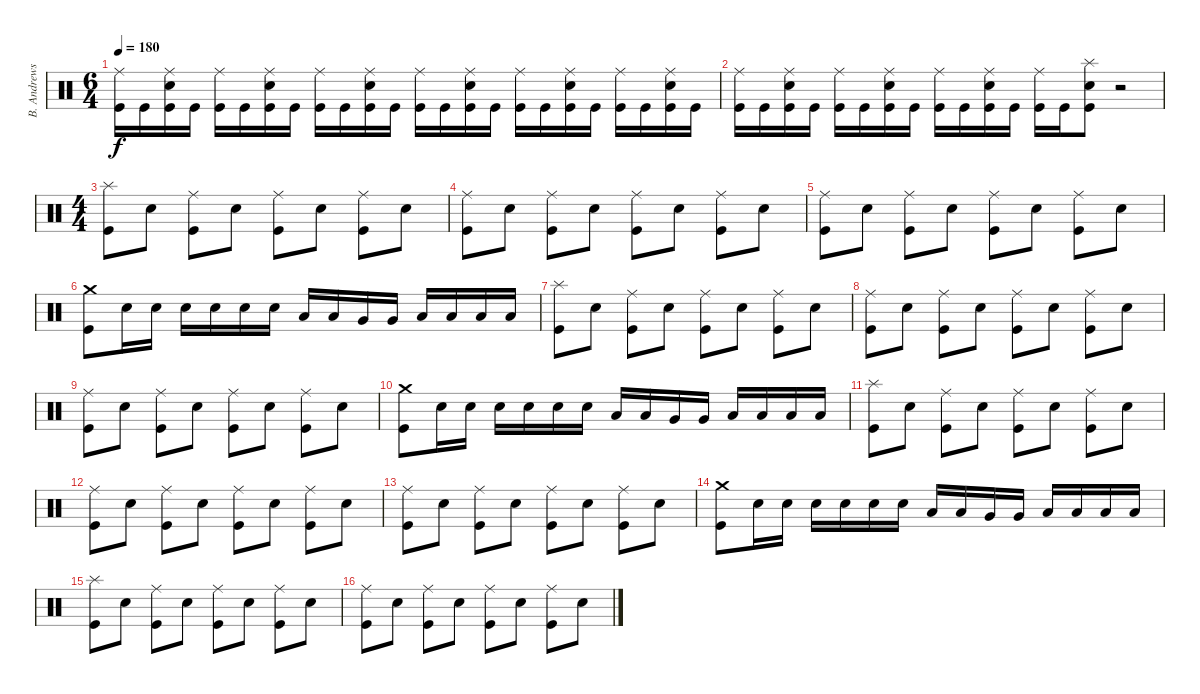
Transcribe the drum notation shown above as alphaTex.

\track ("B. Andrews" "B. Andrews") {instrument percussion}
\staff {score}
\articulation defaults
\ts (6 4)
\tempo 180
\clef neutral
\ks c
("Ride (middle)" "Kick (hit)").16{dy f} "Kick (hit)".16 ("Ride (middle)" "Electric Snare (hit)" "Kick (hit)").16 "Kick (hit)".16 ("Ride (middle)" "Kick (hit)").16 "Kick (hit)".16 ("Ride (middle)" "Electric Snare (hit)" "Kick (hit)").16 "Kick (hit)".16 ("Ride (middle)" "Kick (hit)").16 "Kick (hit)".16 ("Ride (middle)" "Electric Snare (hit)" "Kick (hit)").16 "Kick (hit)".16 ("Ride (middle)" "Kick (hit)").16 "Kick (hit)".16 ("Ride (middle)" "Electric Snare (hit)" "Kick (hit)").16 "Kick (hit)".16 ("Ride (middle)" "Kick (hit)").16 "Kick (hit)".16 ("Ride (middle)" "Electric Snare (hit)" "Kick (hit)").16 "Kick (hit)".16 ("Ride (middle)" "Kick (hit)").16 "Kick (hit)".16 ("Ride (middle)" "Electric Snare (hit)" "Kick (hit)").16 "Kick (hit)".16 |
("Ride (middle)" "Kick (hit)").16 "Kick (hit)".16 ("Ride (middle)" "Electric Snare (hit)" "Kick (hit)").16 "Kick (hit)".16 ("Ride (middle)" "Kick (hit)").16 "Kick (hit)".16 ("Ride (middle)" "Electric Snare (hit)" "Kick (hit)").16 "Kick (hit)".16 ("Ride (middle)" "Kick (hit)").16 "Kick (hit)".16 ("Ride (middle)" "Electric Snare (hit)" "Kick (hit)").16 "Kick (hit)".16 ("Ride (middle)" "Kick (hit)").16 "Kick (hit)".16 ("Splash (hit)" "Electric Snare (hit)" "Kick (hit)").8 r.2 |
\ts (4 4)
("Splash (hit)" "Kick (hit)").8 "Electric Snare (hit)".8 ("Ride (middle)" "Kick (hit)").8 "Electric Snare (hit)".8 ("Ride (middle)" "Kick (hit)").8 "Electric Snare (hit)".8 ("Ride (middle)" "Kick (hit)").8 "Electric Snare (hit)".8 |
("Ride (middle)" "Kick (hit)").8 "Electric Snare (hit)".8 ("Ride (middle)" "Kick (hit)").8 "Electric Snare (hit)".8 ("Ride (middle)" "Kick (hit)").8 "Electric Snare (hit)".8 ("Ride (middle)" "Kick (hit)").8 "Electric Snare (hit)".8 |
("Ride (middle)" "Kick (hit)").8 "Electric Snare (hit)".8 ("Ride (middle)" "Kick (hit)").8 "Electric Snare (hit)".8 ("Ride (middle)" "Kick (hit)").8 "Electric Snare (hit)".8 ("Ride (middle)" "Kick (hit)").8 "Electric Snare (hit)".8 |
("Crash medium (hit)" "Kick (hit)").8 "Electric Snare (hit)".16 "Electric Snare (hit)".16 "Electric Snare (hit)".16 "Electric Snare (hit)".16 "Electric Snare (hit)".16 "Electric Snare (hit)".16 "Low Tom (hit)".16 "Low Tom (hit)".16 "Very Low Tom (hit)".16 "Very Low Tom (hit)".16 "Low Floor Tom (hit)".16 "Low Floor Tom (hit)".16 "Low Floor Tom (hit)".16 "Low Floor Tom (hit)".16 |
("Splash (hit)" "Kick (hit)").8 "Electric Snare (hit)".8 ("Ride (middle)" "Kick (hit)").8 "Electric Snare (hit)".8 ("Ride (middle)" "Kick (hit)").8 "Electric Snare (hit)".8 ("Ride (middle)" "Kick (hit)").8 "Electric Snare (hit)".8 |
("Ride (middle)" "Kick (hit)").8 "Electric Snare (hit)".8 ("Ride (middle)" "Kick (hit)").8 "Electric Snare (hit)".8 ("Ride (middle)" "Kick (hit)").8 "Electric Snare (hit)".8 ("Ride (middle)" "Kick (hit)").8 "Electric Snare (hit)".8 |
("Ride (middle)" "Kick (hit)").8 "Electric Snare (hit)".8 ("Ride (middle)" "Kick (hit)").8 "Electric Snare (hit)".8 ("Ride (middle)" "Kick (hit)").8 "Electric Snare (hit)".8 ("Ride (middle)" "Kick (hit)").8 "Electric Snare (hit)".8 |
("Crash medium (hit)" "Kick (hit)").8 "Electric Snare (hit)".16 "Electric Snare (hit)".16 "Electric Snare (hit)".16 "Electric Snare (hit)".16 "Electric Snare (hit)".16 "Electric Snare (hit)".16 "Low Tom (hit)".16 "Low Tom (hit)".16 "Very Low Tom (hit)".16 "Very Low Tom (hit)".16 "Low Floor Tom (hit)".16 "Low Floor Tom (hit)".16 "Low Floor Tom (hit)".16 "Low Floor Tom (hit)".16 |
("Splash (hit)" "Kick (hit)").8 "Electric Snare (hit)".8 ("Ride (middle)" "Kick (hit)").8 "Electric Snare (hit)".8 ("Ride (middle)" "Kick (hit)").8 "Electric Snare (hit)".8 ("Ride (middle)" "Kick (hit)").8 "Electric Snare (hit)".8 |
("Ride (middle)" "Kick (hit)").8 "Electric Snare (hit)".8 ("Ride (middle)" "Kick (hit)").8 "Electric Snare (hit)".8 ("Ride (middle)" "Kick (hit)").8 "Electric Snare (hit)".8 ("Ride (middle)" "Kick (hit)").8 "Electric Snare (hit)".8 |
("Ride (middle)" "Kick (hit)").8 "Electric Snare (hit)".8 ("Ride (middle)" "Kick (hit)").8 "Electric Snare (hit)".8 ("Ride (middle)" "Kick (hit)").8 "Electric Snare (hit)".8 ("Ride (middle)" "Kick (hit)").8 "Electric Snare (hit)".8 |
("Crash medium (hit)" "Kick (hit)").8 "Electric Snare (hit)".16 "Electric Snare (hit)".16 "Electric Snare (hit)".16 "Electric Snare (hit)".16 "Electric Snare (hit)".16 "Electric Snare (hit)".16 "Low Tom (hit)".16 "Low Tom (hit)".16 "Very Low Tom (hit)".16 "Very Low Tom (hit)".16 "Low Floor Tom (hit)".16 "Low Floor Tom (hit)".16 "Low Floor Tom (hit)".16 "Low Floor Tom (hit)".16 |
("Splash (hit)" "Kick (hit)").8 "Electric Snare (hit)".8 ("Ride (middle)" "Kick (hit)").8 "Electric Snare (hit)".8 ("Ride (middle)" "Kick (hit)").8 "Electric Snare (hit)".8 ("Ride (middle)" "Kick (hit)").8 "Electric Snare (hit)".8 |
("Ride (middle)" "Kick (hit)").8 "Electric Snare (hit)".8 ("Ride (middle)" "Kick (hit)").8 "Electric Snare (hit)".8 ("Ride (middle)" "Kick (hit)").8 "Electric Snare (hit)".8 ("Ride (middle)" "Kick (hit)").8 "Electric Snare (hit)".8
